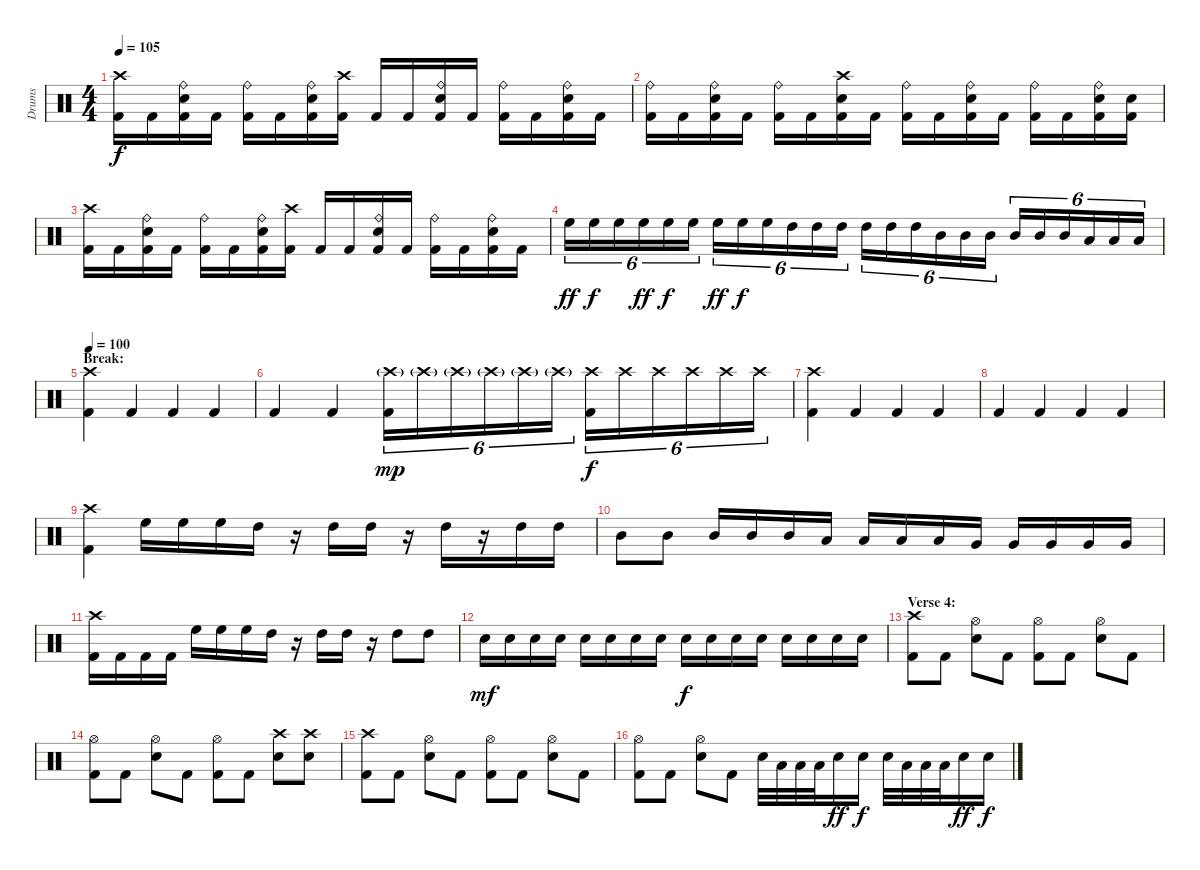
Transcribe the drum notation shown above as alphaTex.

\track ("Drums" "Drums") {instrument percussion}
\staff {score}
\articulation defaults
\ts (4 4)
\tempo 105
\clef neutral
\ks c
("Crash high (hit)" "Kick (hit) 2").16{dy f} "Kick (hit) 2".16 ("Ride (bell)" "Electric Snare (hit)" "Kick (hit) 2").16 "Kick (hit) 2".16 ("Ride (bell)" "Kick (hit) 2").16 "Kick (hit) 2".16 ("Ride (bell)" "Electric Snare (hit)" "Kick (hit) 2").16 ("Crash high (hit)" "Kick (hit) 2").16 "Kick (hit) 2".16 "Kick (hit) 2".16 ("Ride (bell)" "Electric Snare (hit)" "Kick (hit) 2").16 "Kick (hit) 2".16 ("Ride (bell)" "Kick (hit) 2").16 "Kick (hit) 2".16 ("Ride (bell)" "Electric Snare (hit)" "Kick (hit) 2").16 "Kick (hit) 2".16 |
("Ride (bell)" "Kick (hit) 2").16 "Kick (hit) 2".16 ("Ride (bell)" "Electric Snare (hit)" "Kick (hit) 2").16 "Kick (hit) 2".16 ("Ride (bell)" "Kick (hit) 2").16 "Kick (hit) 2".16 ("Crash high (hit)" "Electric Snare (hit)" "Kick (hit) 2").16 "Kick (hit) 2".16 ("Ride (bell)" "Kick (hit) 2").16 "Kick (hit) 2".16 ("Ride (bell)" "Electric Snare (hit)" "Kick (hit) 2").16 "Kick (hit) 2".16 ("Ride (bell)" "Kick (hit) 2").16 "Kick (hit) 2".16 ("Ride (bell)" "Electric Snare (hit)" "Kick (hit) 2").16 ("Electric Snare (hit)" "Kick (hit) 2").16 |
("Crash high (hit)" "Kick (hit) 2").16 "Kick (hit) 2".16 ("Ride (bell)" "Electric Snare (hit)" "Kick (hit) 2").16 "Kick (hit) 2".16 ("Ride (bell)" "Kick (hit) 2").16 "Kick (hit) 2".16 ("Ride (bell)" "Electric Snare (hit)" "Kick (hit) 2").16 ("Crash high (hit)" "Kick (hit) 2").16 "Kick (hit) 2".16 "Kick (hit) 2".16 ("Ride (bell)" "Electric Snare (hit)" "Kick (hit) 2").16 "Kick (hit) 2".16 ("Ride (bell)" "Kick (hit) 2").16 "Kick (hit) 2".16 ("Ride (bell)" "Electric Snare (hit)" "Kick (hit) 2").16 "Kick (hit) 2".16 |
"High Floor Tom (hit)".16{tu (6 4) dy ff} "High Floor Tom (hit)".16{tu (6 4) dy f} "High Floor Tom (hit)".16{tu (6 4)} "High Floor Tom (hit)".16{tu (6 4) dy ff} "High Floor Tom (hit)".16{tu (6 4) dy f} "High Floor Tom (hit)".16{tu (6 4)} "High Floor Tom (hit)".16{tu (6 4) dy ff} "High Floor Tom (hit)".16{tu (6 4) dy f} "High Floor Tom (hit)".16{tu (6 4)} "High Tom (hit)".16{tu (6 4)} "High Tom (hit)".16{tu (6 4)} "High Tom (hit)".16{tu (6 4)} "High Tom (hit)".16{tu (6 4)} "High Tom (hit)".16{tu (6 4)} "High Tom (hit)".16{tu (6 4)} "Mid Tom (hit)".16{tu (6 4)} "Mid Tom (hit)".16{tu (6 4)} "Mid Tom (hit)".16{tu (6 4)} "Mid Tom (hit)".16{tu (6 4)} "Mid Tom (hit)".16{tu (6 4)} "Mid Tom (hit)".16{tu (6 4)} "Low Tom (hit)".16{tu (6 4)} "Low Tom (hit)".16{tu (6 4)} "Low Tom (hit)".16{tu (6 4)} |
\section ("" "Break:")
\tempo 100
("Crash high (hit)" "Kick (hit) 2").4 "Kick (hit) 2".4 "Kick (hit) 2".4 "Kick (hit) 2".4 |
"Kick (hit) 2".4 "Kick (hit) 2".4 ("Crash high (hit)"{g} "Kick (hit) 2").16{tu (6 4) dy mp} "Crash high (hit)"{g}.16{tu (6 4)} "Crash high (hit)"{g}.16{tu (6 4)} "Crash high (hit)"{g}.16{tu (6 4)} "Crash high (hit)"{g}.16{tu (6 4)} "Crash high (hit)"{g}.16{tu (6 4)} ("Crash high (hit)" "Kick (hit) 2").16{tu (6 4) dy f} "Crash high (hit)".16{tu (6 4)} "Crash high (hit)".16{tu (6 4)} "Crash high (hit)".16{tu (6 4)} "Crash high (hit)".16{tu (6 4)} "Crash high (hit)".16{tu (6 4)} |
("Crash high (hit)" "Kick (hit) 2").4 "Kick (hit) 2".4 "Kick (hit) 2".4 "Kick (hit) 2".4 |
"Kick (hit) 2".4 "Kick (hit) 2".4 "Kick (hit) 2".4 "Kick (hit) 2".4 |
("Crash high (hit)" "Kick (hit) 2").4 "High Floor Tom (hit)".16 "High Floor Tom (hit)".16 "High Floor Tom (hit)".16 "High Tom (hit)".16 r.16 "High Tom (hit)".16 "High Tom (hit)".16 r.16 "High Tom (hit)".16 r.16 "High Tom (hit)".16 "High Tom (hit)".16 |
"Mid Tom (hit)".8 "Mid Tom (hit)".8 "Mid Tom (hit)".16 "Mid Tom (hit)".16 "Mid Tom (hit)".16 "Low Tom (hit)".16 "Low Tom (hit)".16 "Low Tom (hit)".16 "Low Tom (hit)".16 "Very Low Tom (hit)".16 "Very Low Tom (hit)".16 "Very Low Tom (hit)".16 "Very Low Tom (hit)".16 "Very Low Tom (hit)".16 |
("Crash high (hit)" "Kick (hit) 2").16 "Kick (hit) 2".16 "Kick (hit) 2".16 "Kick (hit) 2".16 "High Floor Tom (hit)".16 "High Floor Tom (hit)".16 "High Floor Tom (hit)".16 "High Tom (hit)".16 r.16 "High Tom (hit)".16 "High Tom (hit)".16 r.16 "High Tom (hit)".8 "High Tom (hit)".8 |
"Electric Snare (hit)".16{dy mf} "Electric Snare (hit)".16 "Electric Snare (hit)".16 "Electric Snare (hit)".16 "Electric Snare (hit)".16 "Electric Snare (hit)".16 "Electric Snare (hit)".16 "Electric Snare (hit)".16 "Electric Snare (hit)".16{dy f} "Electric Snare (hit)".16 "Electric Snare (hit)".16 "Electric Snare (hit)".16 "Electric Snare (hit)".16 "Electric Snare (hit)".16 "Electric Snare (hit)".16 "Electric Snare (hit)".16 |
\section ("" "Verse 4:")
("Crash high (hit)" "Kick (hit) 2").8 "Kick (hit) 2".8 ("Hi-Hat (open)" "Electric Snare (hit)").8 "Kick (hit) 2".8 ("Hi-Hat (open)" "Kick (hit) 2").8 "Kick (hit) 2".8 ("Hi-Hat (open)" "Electric Snare (hit)").8 "Kick (hit) 2".8 |
("Hi-Hat (open)" "Kick (hit) 2").8 "Kick (hit) 2".8 ("Hi-Hat (open)" "Electric Snare (hit)").8 "Kick (hit) 2".8 ("Hi-Hat (open)" "Kick (hit) 2").8 "Kick (hit) 2".8 ("Crash high (hit)" "Electric Snare (hit)").8 ("Crash high (hit)" "Electric Snare (hit)").8 |
("Crash high (hit)" "Kick (hit) 2").8 "Kick (hit) 2".8 ("Hi-Hat (open)" "Electric Snare (hit)").8 "Kick (hit) 2".8 ("Hi-Hat (open)" "Kick (hit) 2").8 "Kick (hit) 2".8 ("Hi-Hat (open)" "Electric Snare (hit)").8 "Kick (hit) 2".8 |
("Hi-Hat (open)" "Kick (hit) 2").8 "Kick (hit) 2".8 ("Hi-Hat (open)" "Electric Snare (hit)").8 "Kick (hit) 2".8 "Electric Snare (hit)".32 "Low Tom (hit)".32 "Low Tom (hit)".32 "Low Tom (hit)".32 "Electric Snare (hit)".16{dy ff} "Electric Snare (hit)".16{dy f} "Electric Snare (hit)".32 "Low Tom (hit)".32 "Low Tom (hit)".32 "Low Tom (hit)".32 "Electric Snare (hit)".16{dy ff} "Electric Snare (hit)".16{dy f}
